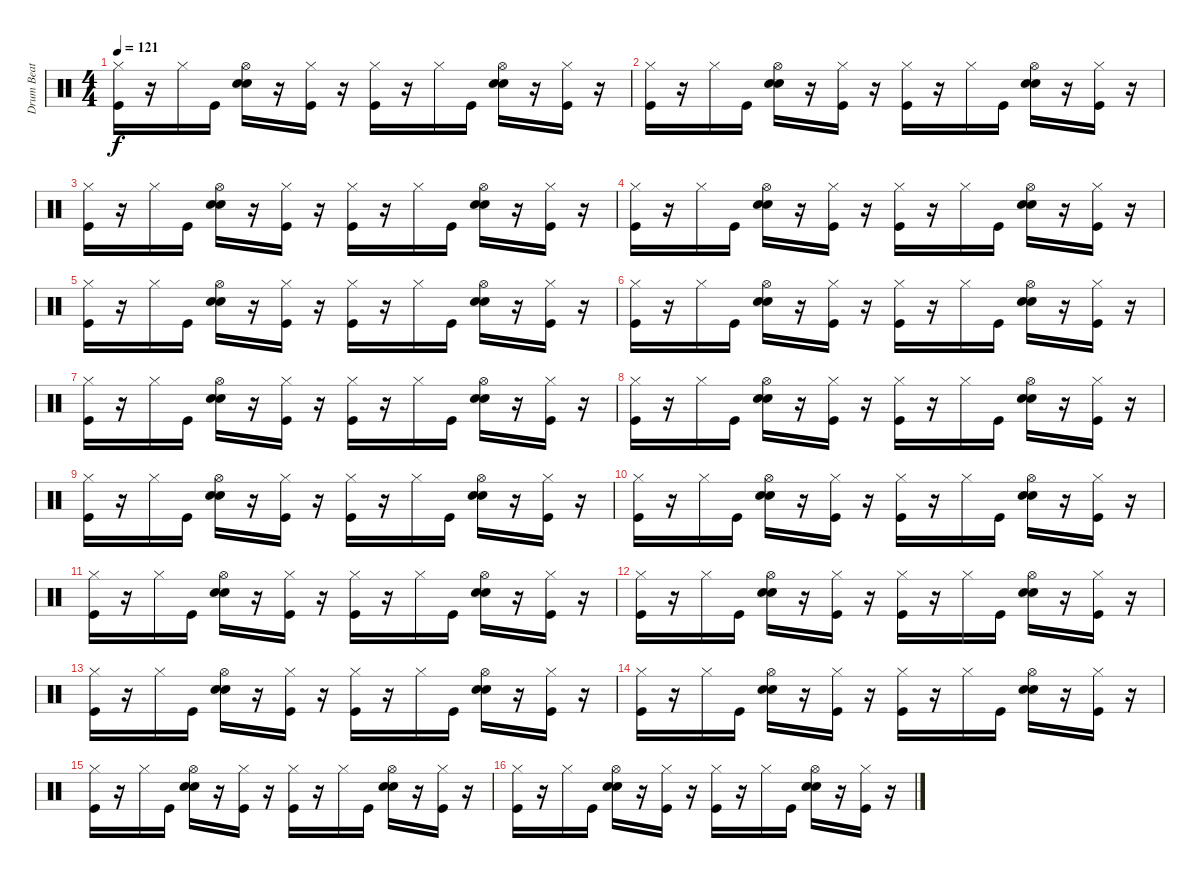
\track ("Drum Beat" "Drum Beat") {instrument percussion}
\staff {score}
\articulation defaults
\ts (4 4)
\tempo 121
\clef neutral
\ks c
("Hi-Hat (closed)" "Kick (hit)").16{dy f} r.16 "Hi-Hat (closed)".16 "Kick (hit)".16 ("Hi-Hat (open)" "Snare (hit) 2" "Hand Clap (hit)").16 r.16 ("Hi-Hat (closed)" "Kick (hit)").16 r.16 ("Hi-Hat (closed)" "Kick (hit)").16 r.16 "Hi-Hat (closed)".16 "Kick (hit)".16 ("Hi-Hat (open)" "Snare (hit) 2" "Hand Clap (hit)").16 r.16 ("Hi-Hat (closed)" "Kick (hit)").16 r.16 |
("Hi-Hat (closed)" "Kick (hit)").16 r.16 "Hi-Hat (closed)".16 "Kick (hit)".16 ("Hi-Hat (open)" "Snare (hit) 2" "Hand Clap (hit)").16 r.16 ("Hi-Hat (closed)" "Kick (hit)").16 r.16 ("Hi-Hat (closed)" "Kick (hit)").16 r.16 "Hi-Hat (closed)".16 "Kick (hit)".16 ("Hi-Hat (open)" "Snare (hit) 2" "Hand Clap (hit)").16 r.16 ("Hi-Hat (closed)" "Kick (hit)").16 r.16 |
("Hi-Hat (closed)" "Kick (hit)").16 r.16 "Hi-Hat (closed)".16 "Kick (hit)".16 ("Hi-Hat (open)" "Snare (hit) 2" "Hand Clap (hit)").16 r.16 ("Hi-Hat (closed)" "Kick (hit)").16 r.16 ("Hi-Hat (closed)" "Kick (hit)").16 r.16 "Hi-Hat (closed)".16 "Kick (hit)".16 ("Hi-Hat (open)" "Snare (hit) 2" "Hand Clap (hit)").16 r.16 ("Hi-Hat (closed)" "Kick (hit)").16 r.16 |
("Hi-Hat (closed)" "Kick (hit)").16 r.16 "Hi-Hat (closed)".16 "Kick (hit)".16 ("Hi-Hat (open)" "Snare (hit) 2" "Hand Clap (hit)").16 r.16 ("Hi-Hat (closed)" "Kick (hit)").16 r.16 ("Hi-Hat (closed)" "Kick (hit)").16 r.16 "Hi-Hat (closed)".16 "Kick (hit)".16 ("Hi-Hat (open)" "Snare (hit) 2" "Hand Clap (hit)").16 r.16 ("Hi-Hat (closed)" "Kick (hit)").16 r.16 |
("Hi-Hat (closed)" "Kick (hit)").16 r.16 "Hi-Hat (closed)".16 "Kick (hit)".16 ("Hi-Hat (open)" "Snare (hit) 2" "Hand Clap (hit)").16 r.16 ("Hi-Hat (closed)" "Kick (hit)").16 r.16 ("Hi-Hat (closed)" "Kick (hit)").16 r.16 "Hi-Hat (closed)".16 "Kick (hit)".16 ("Hi-Hat (open)" "Snare (hit) 2" "Hand Clap (hit)").16 r.16 ("Hi-Hat (closed)" "Kick (hit)").16 r.16 |
("Hi-Hat (closed)" "Kick (hit)").16 r.16 "Hi-Hat (closed)".16 "Kick (hit)".16 ("Hi-Hat (open)" "Snare (hit) 2" "Hand Clap (hit)").16 r.16 ("Hi-Hat (closed)" "Kick (hit)").16 r.16 ("Hi-Hat (closed)" "Kick (hit)").16 r.16 "Hi-Hat (closed)".16 "Kick (hit)".16 ("Hi-Hat (open)" "Snare (hit) 2" "Hand Clap (hit)").16 r.16 ("Hi-Hat (closed)" "Kick (hit)").16 r.16 |
("Hi-Hat (closed)" "Kick (hit)").16 r.16 "Hi-Hat (closed)".16 "Kick (hit)".16 ("Hi-Hat (open)" "Snare (hit) 2" "Hand Clap (hit)").16 r.16 ("Hi-Hat (closed)" "Kick (hit)").16 r.16 ("Hi-Hat (closed)" "Kick (hit)").16 r.16 "Hi-Hat (closed)".16 "Kick (hit)".16 ("Hi-Hat (open)" "Snare (hit) 2" "Hand Clap (hit)").16 r.16 ("Hi-Hat (closed)" "Kick (hit)").16 r.16 |
("Hi-Hat (closed)" "Kick (hit)").16 r.16 "Hi-Hat (closed)".16 "Kick (hit)".16 ("Hi-Hat (open)" "Snare (hit) 2" "Hand Clap (hit)").16 r.16 ("Hi-Hat (closed)" "Kick (hit)").16 r.16 ("Hi-Hat (closed)" "Kick (hit)").16 r.16 "Hi-Hat (closed)".16 "Kick (hit)".16 ("Hi-Hat (open)" "Snare (hit) 2" "Hand Clap (hit)").16 r.16 ("Hi-Hat (closed)" "Kick (hit)").16 r.16 |
("Hi-Hat (closed)" "Kick (hit)").16 r.16 "Hi-Hat (closed)".16 "Kick (hit)".16 ("Hi-Hat (open)" "Snare (hit) 2" "Hand Clap (hit)").16 r.16 ("Hi-Hat (closed)" "Kick (hit)").16 r.16 ("Hi-Hat (closed)" "Kick (hit)").16 r.16 "Hi-Hat (closed)".16 "Kick (hit)".16 ("Hi-Hat (open)" "Snare (hit) 2" "Hand Clap (hit)").16 r.16 ("Hi-Hat (closed)" "Kick (hit)").16 r.16 |
("Hi-Hat (closed)" "Kick (hit)").16 r.16 "Hi-Hat (closed)".16 "Kick (hit)".16 ("Hi-Hat (open)" "Snare (hit) 2" "Hand Clap (hit)").16 r.16 ("Hi-Hat (closed)" "Kick (hit)").16 r.16 ("Hi-Hat (closed)" "Kick (hit)").16 r.16 "Hi-Hat (closed)".16 "Kick (hit)".16 ("Hi-Hat (open)" "Snare (hit) 2" "Hand Clap (hit)").16 r.16 ("Hi-Hat (closed)" "Kick (hit)").16 r.16 |
("Hi-Hat (closed)" "Kick (hit)").16 r.16 "Hi-Hat (closed)".16 "Kick (hit)".16 ("Hi-Hat (open)" "Snare (hit) 2" "Hand Clap (hit)").16 r.16 ("Hi-Hat (closed)" "Kick (hit)").16 r.16 ("Hi-Hat (closed)" "Kick (hit)").16 r.16 "Hi-Hat (closed)".16 "Kick (hit)".16 ("Hi-Hat (open)" "Snare (hit) 2" "Hand Clap (hit)").16 r.16 ("Hi-Hat (closed)" "Kick (hit)").16 r.16 |
("Hi-Hat (closed)" "Kick (hit)").16 r.16 "Hi-Hat (closed)".16 "Kick (hit)".16 ("Hi-Hat (open)" "Snare (hit) 2" "Hand Clap (hit)").16 r.16 ("Hi-Hat (closed)" "Kick (hit)").16 r.16 ("Hi-Hat (closed)" "Kick (hit)").16 r.16 "Hi-Hat (closed)".16 "Kick (hit)".16 ("Hi-Hat (open)" "Snare (hit) 2" "Hand Clap (hit)").16 r.16 ("Hi-Hat (closed)" "Kick (hit)").16 r.16 |
("Hi-Hat (closed)" "Kick (hit)").16 r.16 "Hi-Hat (closed)".16 "Kick (hit)".16 ("Hi-Hat (open)" "Snare (hit) 2" "Hand Clap (hit)").16 r.16 ("Hi-Hat (closed)" "Kick (hit)").16 r.16 ("Hi-Hat (closed)" "Kick (hit)").16 r.16 "Hi-Hat (closed)".16 "Kick (hit)".16 ("Hi-Hat (open)" "Snare (hit) 2" "Hand Clap (hit)").16 r.16 ("Hi-Hat (closed)" "Kick (hit)").16 r.16 |
("Hi-Hat (closed)" "Kick (hit)").16 r.16 "Hi-Hat (closed)".16 "Kick (hit)".16 ("Hi-Hat (open)" "Snare (hit) 2" "Hand Clap (hit)").16 r.16 ("Hi-Hat (closed)" "Kick (hit)").16 r.16 ("Hi-Hat (closed)" "Kick (hit)").16 r.16 "Hi-Hat (closed)".16 "Kick (hit)".16 ("Hi-Hat (open)" "Snare (hit) 2" "Hand Clap (hit)").16 r.16 ("Hi-Hat (closed)" "Kick (hit)").16 r.16 |
("Hi-Hat (closed)" "Kick (hit)").16 r.16 "Hi-Hat (closed)".16 "Kick (hit)".16 ("Hi-Hat (open)" "Snare (hit) 2" "Hand Clap (hit)").16 r.16 ("Hi-Hat (closed)" "Kick (hit)").16 r.16 ("Hi-Hat (closed)" "Kick (hit)").16 r.16 "Hi-Hat (closed)".16 "Kick (hit)".16 ("Hi-Hat (open)" "Snare (hit) 2" "Hand Clap (hit)").16 r.16 ("Hi-Hat (closed)" "Kick (hit)").16 r.16 |
("Hi-Hat (closed)" "Kick (hit)").16 r.16 "Hi-Hat (closed)".16 "Kick (hit)".16 ("Hi-Hat (open)" "Snare (hit) 2" "Hand Clap (hit)").16 r.16 ("Hi-Hat (closed)" "Kick (hit)").16 r.16 ("Hi-Hat (closed)" "Kick (hit)").16 r.16 "Hi-Hat (closed)".16 "Kick (hit)".16 ("Hi-Hat (open)" "Snare (hit) 2" "Hand Clap (hit)").16 r.16 ("Hi-Hat (closed)" "Kick (hit)").16 r.16
